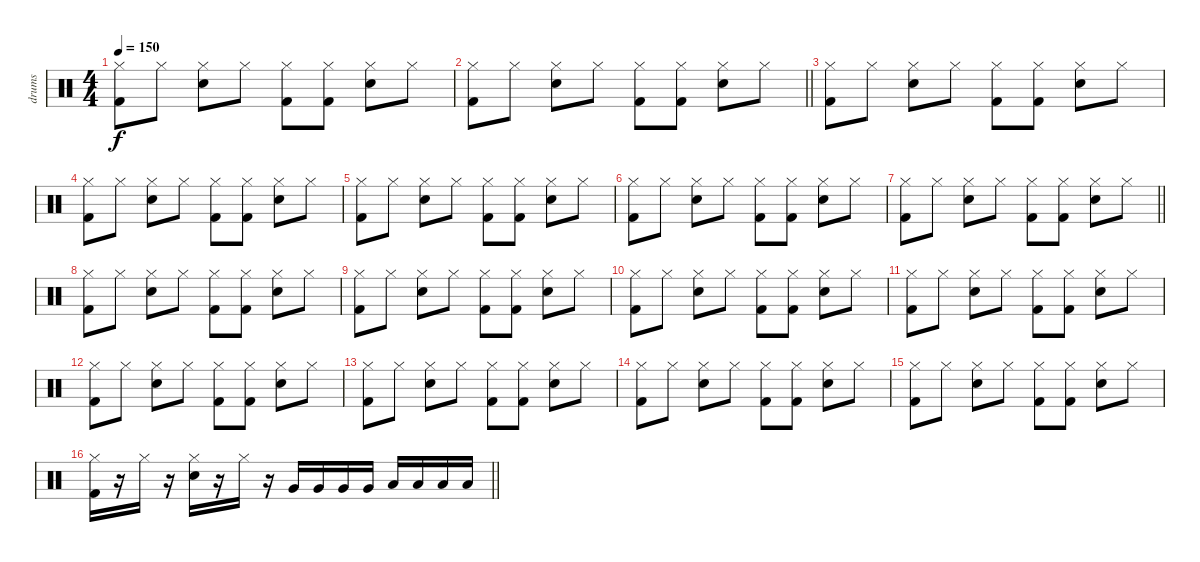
\track ("drums" "drums") {instrument percussion}
\staff {score}
\articulation defaults
\ts (4 4)
\tempo 150
\clef neutral
\ks c
("Kick (hit) 2" "Hi-Hat (closed)").8{dy f} "Hi-Hat (closed)".8 ("Snare (hit) 2" "Hi-Hat (closed)").8 "Hi-Hat (closed)".8 ("Kick (hit) 2" "Hi-Hat (closed)").8 ("Kick (hit) 2" "Hi-Hat (closed)").8 ("Snare (hit) 2" "Hi-Hat (closed)").8 "Hi-Hat (closed)".8 |
\barLineRight lightlight
("Kick (hit) 2" "Hi-Hat (closed)").8 "Hi-Hat (closed)".8 ("Snare (hit) 2" "Hi-Hat (closed)").8 "Hi-Hat (closed)".8 ("Kick (hit) 2" "Hi-Hat (closed)").8 ("Kick (hit) 2" "Hi-Hat (closed)").8 ("Snare (hit) 2" "Hi-Hat (closed)").8 "Hi-Hat (closed)".8 |
("Kick (hit) 2" "Hi-Hat (closed)").8 "Hi-Hat (closed)".8 ("Snare (hit) 2" "Hi-Hat (closed)").8 "Hi-Hat (closed)".8 ("Kick (hit) 2" "Hi-Hat (closed)").8 ("Kick (hit) 2" "Hi-Hat (closed)").8 ("Snare (hit) 2" "Hi-Hat (closed)").8 "Hi-Hat (closed)".8 |
("Kick (hit) 2" "Hi-Hat (closed)").8 "Hi-Hat (closed)".8 ("Snare (hit) 2" "Hi-Hat (closed)").8 "Hi-Hat (closed)".8 ("Kick (hit) 2" "Hi-Hat (closed)").8 ("Kick (hit) 2" "Hi-Hat (closed)").8 ("Snare (hit) 2" "Hi-Hat (closed)").8 "Hi-Hat (closed)".8 |
("Kick (hit) 2" "Hi-Hat (closed)").8 "Hi-Hat (closed)".8 ("Snare (hit) 2" "Hi-Hat (closed)").8 "Hi-Hat (closed)".8 ("Kick (hit) 2" "Hi-Hat (closed)").8 ("Kick (hit) 2" "Hi-Hat (closed)").8 ("Snare (hit) 2" "Hi-Hat (closed)").8 "Hi-Hat (closed)".8 |
("Kick (hit) 2" "Hi-Hat (closed)").8 "Hi-Hat (closed)".8 ("Snare (hit) 2" "Hi-Hat (closed)").8 "Hi-Hat (closed)".8 ("Kick (hit) 2" "Hi-Hat (closed)").8 ("Kick (hit) 2" "Hi-Hat (closed)").8 ("Snare (hit) 2" "Hi-Hat (closed)").8 "Hi-Hat (closed)".8 |
\barLineRight lightlight
("Kick (hit) 2" "Hi-Hat (closed)").8 "Hi-Hat (closed)".8 ("Snare (hit) 2" "Hi-Hat (closed)").8 "Hi-Hat (closed)".8 ("Kick (hit) 2" "Hi-Hat (closed)").8 ("Kick (hit) 2" "Hi-Hat (closed)").8 ("Snare (hit) 2" "Hi-Hat (closed)").8 "Hi-Hat (closed)".8 |
("Kick (hit) 2" "Hi-Hat (closed)").8 "Hi-Hat (closed)".8 ("Snare (hit) 2" "Hi-Hat (closed)").8 "Hi-Hat (closed)".8 ("Kick (hit) 2" "Hi-Hat (closed)").8 ("Kick (hit) 2" "Hi-Hat (closed)").8 ("Snare (hit) 2" "Hi-Hat (closed)").8 "Hi-Hat (closed)".8 |
("Kick (hit) 2" "Hi-Hat (closed)").8 "Hi-Hat (closed)".8 ("Snare (hit) 2" "Hi-Hat (closed)").8 "Hi-Hat (closed)".8 ("Kick (hit) 2" "Hi-Hat (closed)").8 ("Kick (hit) 2" "Hi-Hat (closed)").8 ("Snare (hit) 2" "Hi-Hat (closed)").8 "Hi-Hat (closed)".8 |
("Kick (hit) 2" "Hi-Hat (closed)").8 "Hi-Hat (closed)".8 ("Snare (hit) 2" "Hi-Hat (closed)").8 "Hi-Hat (closed)".8 ("Kick (hit) 2" "Hi-Hat (closed)").8 ("Kick (hit) 2" "Hi-Hat (closed)").8 ("Snare (hit) 2" "Hi-Hat (closed)").8 "Hi-Hat (closed)".8 |
("Kick (hit) 2" "Hi-Hat (closed)").8 "Hi-Hat (closed)".8 ("Snare (hit) 2" "Hi-Hat (closed)").8 "Hi-Hat (closed)".8 ("Kick (hit) 2" "Hi-Hat (closed)").8 ("Kick (hit) 2" "Hi-Hat (closed)").8 ("Snare (hit) 2" "Hi-Hat (closed)").8 "Hi-Hat (closed)".8 |
("Kick (hit) 2" "Hi-Hat (closed)").8 "Hi-Hat (closed)".8 ("Snare (hit) 2" "Hi-Hat (closed)").8 "Hi-Hat (closed)".8 ("Kick (hit) 2" "Hi-Hat (closed)").8 ("Kick (hit) 2" "Hi-Hat (closed)").8 ("Snare (hit) 2" "Hi-Hat (closed)").8 "Hi-Hat (closed)".8 |
("Kick (hit) 2" "Hi-Hat (closed)").8 "Hi-Hat (closed)".8 ("Snare (hit) 2" "Hi-Hat (closed)").8 "Hi-Hat (closed)".8 ("Kick (hit) 2" "Hi-Hat (closed)").8 ("Kick (hit) 2" "Hi-Hat (closed)").8 ("Snare (hit) 2" "Hi-Hat (closed)").8 "Hi-Hat (closed)".8 |
("Kick (hit) 2" "Hi-Hat (closed)").8 "Hi-Hat (closed)".8 ("Snare (hit) 2" "Hi-Hat (closed)").8 "Hi-Hat (closed)".8 ("Kick (hit) 2" "Hi-Hat (closed)").8 ("Kick (hit) 2" "Hi-Hat (closed)").8 ("Snare (hit) 2" "Hi-Hat (closed)").8 "Hi-Hat (closed)".8 |
("Kick (hit) 2" "Hi-Hat (closed)").8 "Hi-Hat (closed)".8 ("Snare (hit) 2" "Hi-Hat (closed)").8 "Hi-Hat (closed)".8 ("Kick (hit) 2" "Hi-Hat (closed)").8 ("Kick (hit) 2" "Hi-Hat (closed)").8 ("Snare (hit) 2" "Hi-Hat (closed)").8 "Hi-Hat (closed)".8 |
\barLineRight lightlight
("Kick (hit) 2" "Hi-Hat (closed)").16 r.16 "Hi-Hat (closed)".16 r.16 ("Snare (hit) 2" "Hi-Hat (closed)").16 r.16 "Hi-Hat (closed)".16 r.16 "Very Low Tom (hit)".16 "Very Low Tom (hit)".16 "Very Low Tom (hit)".16 "Very Low Tom (hit)".16 "Low Floor Tom (hit)".16 "Low Floor Tom (hit)".16 "Low Floor Tom (hit)".16 "Low Floor Tom (hit)".16
